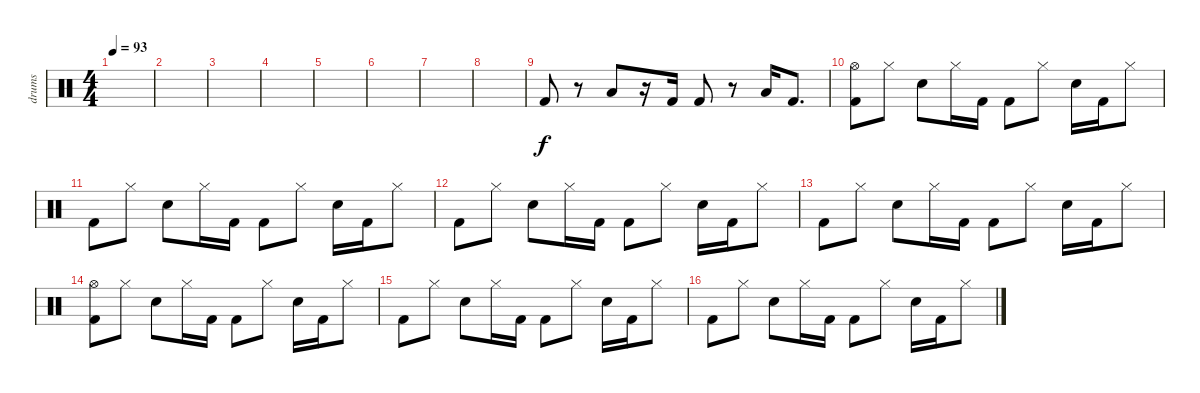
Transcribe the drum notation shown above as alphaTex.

\track ("drums" "drums") {instrument percussion}
\staff {score}
\articulation defaults
\ts (4 4)
\tempo 93
\clef neutral
\ks c
|
|
|
|
|
|
|
|
"Kick (hit) 2".8 r.8 "Low Tom (hit)".8 r.16 "Kick (hit) 2".16 "Kick (hit) 2".8 r.8 "Low Tom (hit)".16 "Kick (hit) 2".8{d} |
("Hi-Hat (open)" "Kick (hit) 2").8 "Hi-Hat (closed)".8 "Snare (hit) 2".8 "Hi-Hat (closed)".16 "Kick (hit) 2".16 "Kick (hit) 2".8 "Hi-Hat (closed)".8 "Snare (hit) 2".16 "Kick (hit) 2".16 "Hi-Hat (closed)".8 |
"Kick (hit) 2".8 "Hi-Hat (closed)".8 "Snare (hit) 2".8 "Hi-Hat (closed)".16 "Kick (hit) 2".16 "Kick (hit) 2".8 "Hi-Hat (closed)".8 "Snare (hit) 2".16 "Kick (hit) 2".16 "Hi-Hat (closed)".8 |
"Kick (hit) 2".8 "Hi-Hat (closed)".8 "Snare (hit) 2".8 "Hi-Hat (closed)".16 "Kick (hit) 2".16 "Kick (hit) 2".8 "Hi-Hat (closed)".8 "Snare (hit) 2".16 "Kick (hit) 2".16 "Hi-Hat (closed)".8 |
"Kick (hit) 2".8 "Hi-Hat (closed)".8 "Snare (hit) 2".8 "Hi-Hat (closed)".16 "Kick (hit) 2".16 "Kick (hit) 2".8 "Hi-Hat (closed)".8 "Snare (hit) 2".16 "Kick (hit) 2".16 "Hi-Hat (closed)".8 |
("Hi-Hat (open)" "Kick (hit) 2").8 "Hi-Hat (closed)".8 "Snare (hit) 2".8 "Hi-Hat (closed)".16 "Kick (hit) 2".16 "Kick (hit) 2".8 "Hi-Hat (closed)".8 "Snare (hit) 2".16 "Kick (hit) 2".16 "Hi-Hat (closed)".8 |
"Kick (hit) 2".8 "Hi-Hat (closed)".8 "Snare (hit) 2".8 "Hi-Hat (closed)".16 "Kick (hit) 2".16 "Kick (hit) 2".8 "Hi-Hat (closed)".8 "Snare (hit) 2".16 "Kick (hit) 2".16 "Hi-Hat (closed)".8 |
"Kick (hit) 2".8 "Hi-Hat (closed)".8 "Snare (hit) 2".8 "Hi-Hat (closed)".16 "Kick (hit) 2".16 "Kick (hit) 2".8 "Hi-Hat (closed)".8 "Snare (hit) 2".16 "Kick (hit) 2".16 "Hi-Hat (closed)".8
